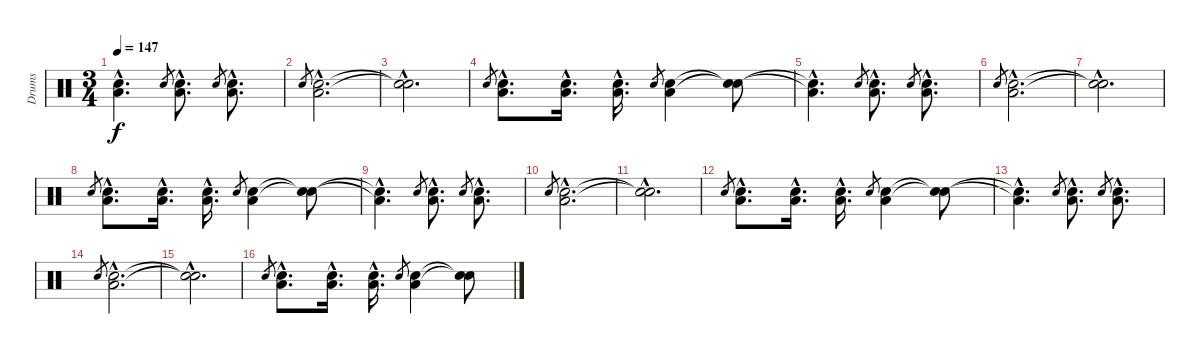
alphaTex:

\track ("Drums" "Drums") {instrument percussion}
\staff {score}
\articulation defaults
\ts (3 4)
\tempo 147
\clef neutral
\ks c
("Snare (hit) 2"{hac t} "Low Floor Tom (hit)"{hac t}).4{d dy f} "Snare (hit) 2".8{gr} ("Snare (hit) 2"{hac} "Low Floor Tom (hit)"{hac}).8{d} "Snare (hit) 2".8{gr} ("Snare (hit) 2"{hac} "Low Floor Tom (hit)"{hac}).8{d} |
"Snare (hit) 2".8{gr} ("Snare (hit) 2"{hac} "Low Floor Tom (hit)"{hac}).2{d} |
("Snare (hit)"{hac t} "Snare (hit)"{hac t}).2{d} |
"Snare (hit) 2".8{gr} ("Snare (hit) 2"{hac} "Low Floor Tom (hit)"{hac}).8{d volume 16} ("Snare (hit) 2"{hac} "Low Floor Tom (hit)"{hac}).16{d} ("Snare (hit) 2"{hac} "Low Floor Tom (hit)"{hac}).16{d} "Snare (hit) 2".8{gr} ("Snare (hit) 2" "Low Floor Tom (hit)").4 ("Snare (hit)"{t} "Snare (hit)"{t}).8 |
("Snare (hit) 2"{hac t} "Low Floor Tom (hit)"{hac t}).4{d} "Snare (hit) 2".8{gr} ("Snare (hit) 2"{hac} "Low Floor Tom (hit)"{hac}).8{d} "Snare (hit) 2".8{gr} ("Snare (hit) 2"{hac} "Low Floor Tom (hit)"{hac}).8{d} |
"Snare (hit) 2".8{gr} ("Snare (hit) 2"{hac} "Low Floor Tom (hit)"{hac}).2{d} |
("Snare (hit)"{hac t} "Snare (hit)"{hac t}).2{d} |
"Snare (hit) 2".8{gr} ("Snare (hit) 2"{hac} "Low Floor Tom (hit)"{hac}).8{d volume 13} ("Snare (hit) 2"{hac} "Low Floor Tom (hit)"{hac}).16{d} ("Snare (hit) 2"{hac} "Low Floor Tom (hit)"{hac}).16{d} "Snare (hit) 2".8{gr} ("Snare (hit) 2" "Low Floor Tom (hit)").4 ("Snare (hit)"{t} "Snare (hit)"{t}).8 |
("Snare (hit) 2"{hac t} "Low Floor Tom (hit)"{hac t}).4{d} "Snare (hit) 2".8{gr} ("Snare (hit) 2"{hac} "Low Floor Tom (hit)"{hac}).8{d} "Snare (hit) 2".8{gr} ("Snare (hit) 2"{hac} "Low Floor Tom (hit)"{hac}).8{d} |
"Snare (hit) 2".8{gr} ("Snare (hit) 2"{hac} "Low Floor Tom (hit)"{hac}).2{d} |
("Snare (hit)"{hac t} "Snare (hit)"{hac t}).2{d} |
"Snare (hit) 2".8{gr} ("Snare (hit) 2"{hac} "Low Floor Tom (hit)"{hac}).8{d volume 10} ("Snare (hit) 2"{hac} "Low Floor Tom (hit)"{hac}).16{d} ("Snare (hit) 2"{hac} "Low Floor Tom (hit)"{hac}).16{d} "Snare (hit) 2".8{gr} ("Snare (hit) 2" "Low Floor Tom (hit)").4 ("Snare (hit)"{t} "Snare (hit)"{t}).8 |
("Snare (hit) 2"{hac t} "Low Floor Tom (hit)"{hac t}).4{d} "Snare (hit) 2".8{gr} ("Snare (hit) 2"{hac} "Low Floor Tom (hit)"{hac}).8{d} "Snare (hit) 2".8{gr} ("Snare (hit) 2"{hac} "Low Floor Tom (hit)"{hac}).8{d} |
"Snare (hit) 2".8{gr} ("Snare (hit) 2"{hac} "Low Floor Tom (hit)"{hac}).2{d} |
("Snare (hit)"{hac t} "Snare (hit)"{hac t}).2{d} |
"Snare (hit) 2".8{gr} ("Snare (hit) 2"{hac} "Low Floor Tom (hit)"{hac}).8{d volume 8} ("Snare (hit) 2"{hac} "Low Floor Tom (hit)"{hac}).16{d} ("Snare (hit) 2"{hac} "Low Floor Tom (hit)"{hac}).16{d} "Snare (hit) 2".8{gr} ("Snare (hit) 2" "Low Floor Tom (hit)").4 ("Snare (hit)"{t} "Snare (hit)"{t}).8
